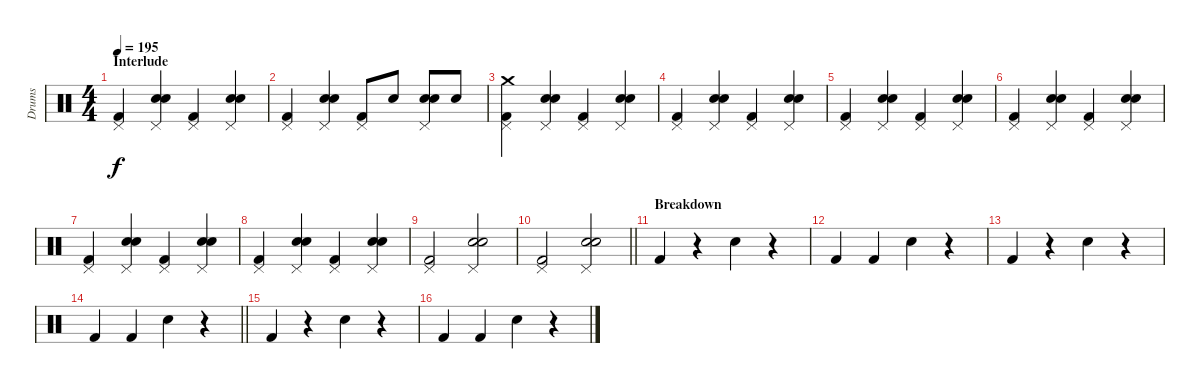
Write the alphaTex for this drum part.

\track ("Drums" "Drums") {instrument percussion}
\staff {score}
\articulation defaults
\ts (4 4)
\section ("" "Interlude")
\tempo 195
\clef neutral
\ks c
("Kick (hit) 2" "Pedal Hi-Hat (hit)").4{dy f} ("Snare (hit) 2" "Electric Snare (hit)" "Pedal Hi-Hat (hit)").4 ("Kick (hit) 2" "Pedal Hi-Hat (hit)").4 ("Snare (hit) 2" "Electric Snare (hit)" "Pedal Hi-Hat (hit)").4 |
("Kick (hit) 2" "Pedal Hi-Hat (hit)").4 ("Snare (hit) 2" "Electric Snare (hit)" "Pedal Hi-Hat (hit)").4 ("Kick (hit) 2" "Pedal Hi-Hat (hit)").8 "Snare (hit) 2".8 ("Snare (hit) 2" "Electric Snare (hit)" "Pedal Hi-Hat (hit)").8 "Snare (hit) 2".8 |
("Kick (hit) 2" "Pedal Hi-Hat (hit)" "Crash medium (hit)").4 ("Snare (hit) 2" "Electric Snare (hit)" "Pedal Hi-Hat (hit)").4 ("Kick (hit) 2" "Pedal Hi-Hat (hit)").4 ("Snare (hit) 2" "Electric Snare (hit)" "Pedal Hi-Hat (hit)").4 |
("Kick (hit) 2" "Pedal Hi-Hat (hit)").4 ("Snare (hit) 2" "Electric Snare (hit)" "Pedal Hi-Hat (hit)").4 ("Kick (hit) 2" "Pedal Hi-Hat (hit)").4 ("Snare (hit) 2" "Electric Snare (hit)" "Pedal Hi-Hat (hit)").4 |
("Kick (hit) 2" "Pedal Hi-Hat (hit)").4 ("Snare (hit) 2" "Electric Snare (hit)" "Pedal Hi-Hat (hit)").4 ("Kick (hit) 2" "Pedal Hi-Hat (hit)").4 ("Snare (hit) 2" "Electric Snare (hit)" "Pedal Hi-Hat (hit)").4 |
("Kick (hit) 2" "Pedal Hi-Hat (hit)").4 ("Snare (hit) 2" "Electric Snare (hit)" "Pedal Hi-Hat (hit)").4 ("Kick (hit) 2" "Pedal Hi-Hat (hit)").4 ("Snare (hit) 2" "Electric Snare (hit)" "Pedal Hi-Hat (hit)").4 |
("Kick (hit) 2" "Pedal Hi-Hat (hit)").4 ("Snare (hit) 2" "Electric Snare (hit)" "Pedal Hi-Hat (hit)").4 ("Kick (hit) 2" "Pedal Hi-Hat (hit)").4 ("Snare (hit) 2" "Electric Snare (hit)" "Pedal Hi-Hat (hit)").4 |
("Kick (hit) 2" "Pedal Hi-Hat (hit)").4 ("Snare (hit) 2" "Electric Snare (hit)" "Pedal Hi-Hat (hit)").4 ("Kick (hit) 2" "Pedal Hi-Hat (hit)").4 ("Snare (hit) 2" "Electric Snare (hit)" "Pedal Hi-Hat (hit)").4 |
("Kick (hit) 2" "Pedal Hi-Hat (hit)").2 ("Snare (hit) 2" "Electric Snare (hit)" "Pedal Hi-Hat (hit)").2 |
\barLineRight lightlight
("Kick (hit) 2" "Pedal Hi-Hat (hit)").2 ("Snare (hit) 2" "Electric Snare (hit)" "Pedal Hi-Hat (hit)").2 |
\section ("" "Breakdown")
"Kick (hit) 2".4 r.4 "Hand Clap (hit)".4 r.4 |
"Kick (hit) 2".4 "Kick (hit) 2".4 "Hand Clap (hit)".4 r.4 |
"Kick (hit) 2".4 r.4 "Hand Clap (hit)".4 r.4 |
\barLineRight lightlight "Kick (hit) 2".4 "Kick (hit) 2".4 "Hand Clap (hit)".4
r.4 |
"Kick (hit) 2".4 r.4 "Hand Clap (hit)".4 r.4 |
"Kick (hit) 2".4 "Kick (hit) 2".4 "Hand Clap (hit)".4 r.4
